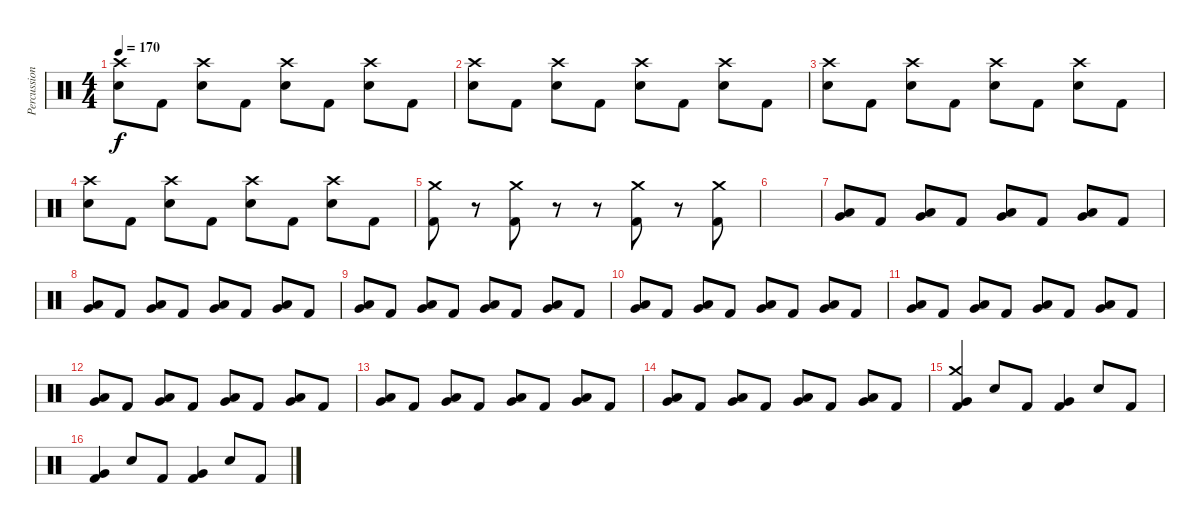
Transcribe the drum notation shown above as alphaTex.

\track ("Percussion" "Percussion") {instrument percussion}
\staff {score}
\articulation defaults
\ts (4 4)
\tempo 170
\clef neutral
\ks c
("Crash high (hit)" "Electric Snare (hit)").8{dy f} "Kick (hit) 2".8 ("Crash high (hit)" "Electric Snare (hit)").8 "Kick (hit) 2".8 ("Crash high (hit)" "Electric Snare (hit)").8 "Kick (hit) 2".8 ("Crash high (hit)" "Electric Snare (hit)").8 "Kick (hit) 2".8 |
("Crash high (hit)" "Electric Snare (hit)").8 "Kick (hit) 2".8 ("Crash high (hit)" "Electric Snare (hit)").8 "Kick (hit) 2".8 ("Crash high (hit)" "Electric Snare (hit)").8 "Kick (hit) 2".8 ("Crash high (hit)" "Electric Snare (hit)").8 "Kick (hit) 2".8 |
("Crash high (hit)" "Electric Snare (hit)").8 "Kick (hit) 2".8 ("Crash high (hit)" "Electric Snare (hit)").8 "Kick (hit) 2".8 ("Crash high (hit)" "Electric Snare (hit)").8 "Kick (hit) 2".8 ("Crash high (hit)" "Electric Snare (hit)").8 "Kick (hit) 2".8 |
("Crash high (hit)" "Electric Snare (hit)").8 "Kick (hit) 2".8 ("Crash high (hit)" "Electric Snare (hit)").8 "Kick (hit) 2".8 ("Crash high (hit)" "Electric Snare (hit)").8 "Kick (hit) 2".8 ("Crash high (hit)" "Electric Snare (hit)").8 "Kick (hit) 2".8 |
("Crash medium (hit)" "Kick (hit) 2").8 r.8 ("Crash medium (hit)" "Kick (hit) 2").8 r.8 r.8 ("Crash medium (hit)" "Kick (hit) 2").8 r.8 ("Crash medium (hit)" "Kick (hit) 2").8 |
|
("Low Tom (hit)" "Very Low Tom (hit)").8 "Kick (hit) 2".8 ("Low Tom (hit)" "Very Low Tom (hit)").8 "Kick (hit) 2".8 ("Low Tom (hit)" "Very Low Tom (hit)").8 "Kick (hit) 2".8 ("Low Tom (hit)" "Very Low Tom (hit)").8 "Kick (hit) 2".8 |
("Low Tom (hit)" "Very Low Tom (hit)").8 "Kick (hit) 2".8 ("Low Tom (hit)" "Very Low Tom (hit)").8 "Kick (hit) 2".8 ("Low Tom (hit)" "Very Low Tom (hit)").8 "Kick (hit) 2".8 ("Low Tom (hit)" "Very Low Tom (hit)").8 "Kick (hit) 2".8 |
("Low Tom (hit)" "Very Low Tom (hit)").8 "Kick (hit) 2".8 ("Low Tom (hit)" "Very Low Tom (hit)").8 "Kick (hit) 2".8 ("Low Tom (hit)" "Very Low Tom (hit)").8 "Kick (hit) 2".8 ("Low Tom (hit)" "Very Low Tom (hit)").8 "Kick (hit) 2".8 |
("Low Tom (hit)" "Very Low Tom (hit)").8 "Kick (hit) 2".8 ("Low Tom (hit)" "Very Low Tom (hit)").8 "Kick (hit) 2".8 ("Low Tom (hit)" "Very Low Tom (hit)").8 "Kick (hit) 2".8 ("Low Tom (hit)" "Very Low Tom (hit)").8 "Kick (hit) 2".8 |
("Low Tom (hit)" "Very Low Tom (hit)").8 "Kick (hit) 2".8 ("Low Tom (hit)" "Very Low Tom (hit)").8 "Kick (hit) 2".8 ("Low Tom (hit)" "Very Low Tom (hit)").8 "Kick (hit) 2".8 ("Low Tom (hit)" "Very Low Tom (hit)").8 "Kick (hit) 2".8 |
("Low Tom (hit)" "Very Low Tom (hit)").8 "Kick (hit) 2".8 ("Low Tom (hit)" "Very Low Tom (hit)").8 "Kick (hit) 2".8 ("Low Tom (hit)" "Very Low Tom (hit)").8 "Kick (hit) 2".8 ("Low Tom (hit)" "Very Low Tom (hit)").8 "Kick (hit) 2".8 |
("Low Tom (hit)" "Very Low Tom (hit)").8 "Kick (hit) 2".8 ("Low Tom (hit)" "Very Low Tom (hit)").8 "Kick (hit) 2".8 ("Low Tom (hit)" "Very Low Tom (hit)").8 "Kick (hit) 2".8 ("Low Tom (hit)" "Very Low Tom (hit)").8 "Kick (hit) 2".8 |
("Low Tom (hit)" "Very Low Tom (hit)").8 "Kick (hit) 2".8 ("Low Tom (hit)" "Very Low Tom (hit)").8 "Kick (hit) 2".8 ("Low Tom (hit)" "Very Low Tom (hit)").8 "Kick (hit) 2".8 ("Low Tom (hit)" "Very Low Tom (hit)").8 "Kick (hit) 2".8 |
("Crash medium (hit)" "Very Low Tom (hit)" "Kick (hit) 2").4 "Electric Snare (hit)".8 "Kick (hit) 2".8 ("Very Low Tom (hit)" "Kick (hit) 2").4 "Electric Snare (hit)".8 "Kick (hit) 2".8 |
("Very Low Tom (hit)" "Kick (hit) 2").4 "Electric Snare (hit)".8 "Kick (hit) 2".8 ("Very Low Tom (hit)" "Kick (hit) 2").4 "Electric Snare (hit)".8 "Kick (hit) 2".8
